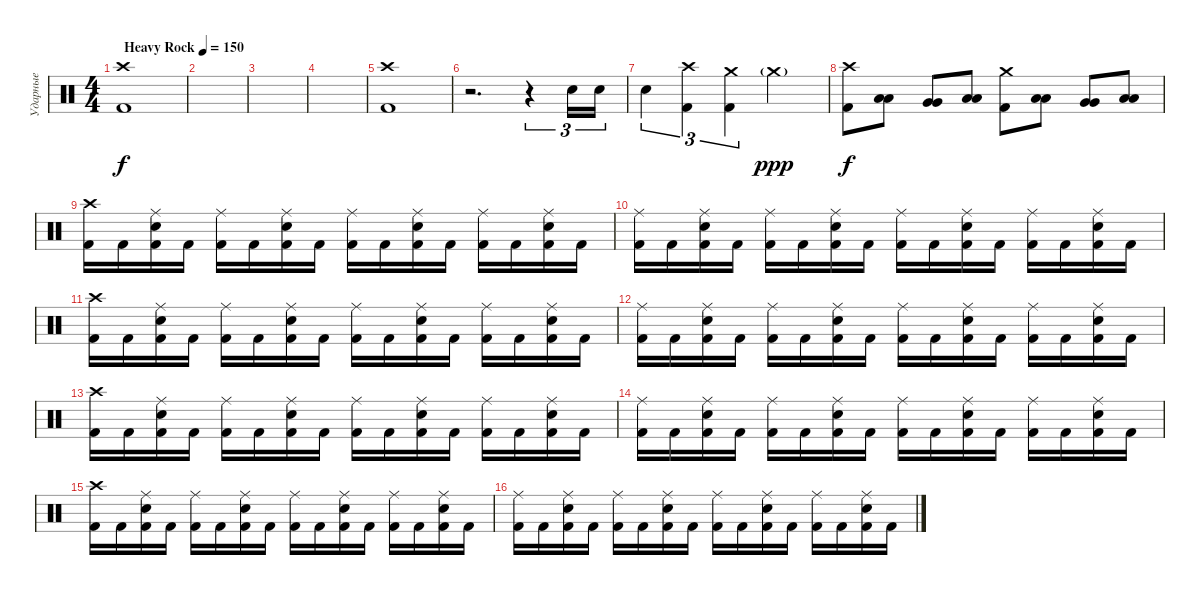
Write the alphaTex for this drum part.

\track ("Ударные" "Ударные") {instrument percussion}
\staff {score}
\articulation defaults
\ts (4 4)
\tempo (150 "Heavy Rock")
\clef neutral
\ks c
("Crash high (hit)" "Kick (hit) 2").1{dy f} |
|
|
|
("Crash high (hit)" "Kick (hit) 2").1 |
r.2{d} r.4{tu (3 2)} "Electric Snare (hit)".16{tu (3 2)} "Electric Snare (hit)".16{tu (3 2)} |
"Electric Snare (hit)".4{tu (3 2)} ("Crash high (hit)" "Kick (hit) 2").4{tu (3 2)} ("Crash medium (hit)" "Kick (hit) 2").4{tu (3 2)} "Crash medium (hit)"{g}.2{dy ppp} |
("Crash high (hit)" "Kick (hit) 2").8{dy f} ("Low Tom (hit)" "Low Tom (hit)").8 ("Very Low Tom (hit)" "Very Low Tom (hit)").8 ("Low Floor Tom (hit)" "Low Floor Tom (hit)").8 ("Crash medium (hit)" "Kick (hit) 2").8 ("Low Tom (hit)" "Low Tom (hit)").8 ("Very Low Tom (hit)" "Very Low Tom (hit)").8 ("Low Floor Tom (hit)" "Low Floor Tom (hit)").8 |
("Crash high (hit)" "Kick (hit) 2").16 "Kick (hit) 2".16 ("Ride (middle)" "Electric Snare (hit)" "Kick (hit) 2").16 "Kick (hit) 2".16 ("Ride (middle)" "Kick (hit) 2").16 "Kick (hit) 2".16 ("Ride (middle)" "Electric Snare (hit)" "Kick (hit) 2").16 "Kick (hit) 2".16 ("Ride (middle)" "Kick (hit) 2").16 "Kick (hit) 2".16 ("Ride (middle)" "Electric Snare (hit)" "Kick (hit) 2").16 "Kick (hit) 2".16 ("Ride (middle)" "Kick (hit) 2").16 "Kick (hit) 2".16 ("Ride (middle)" "Electric Snare (hit)" "Kick (hit) 2").16 "Kick (hit) 2".16 |
("Ride (middle)" "Kick (hit) 2").16 "Kick (hit) 2".16 ("Ride (middle)" "Electric Snare (hit)" "Kick (hit) 2").16 "Kick (hit) 2".16 ("Ride (middle)" "Kick (hit) 2").16 "Kick (hit) 2".16 ("Ride (middle)" "Electric Snare (hit)" "Kick (hit) 2").16 "Kick (hit) 2".16 ("Ride (middle)" "Kick (hit) 2").16 "Kick (hit) 2".16 ("Ride (middle)" "Electric Snare (hit)" "Kick (hit) 2").16 "Kick (hit) 2".16 ("Ride (middle)" "Kick (hit) 2").16 "Kick (hit) 2".16 ("Ride (middle)" "Electric Snare (hit)" "Kick (hit) 2").16 "Kick (hit) 2".16 |
("Crash high (hit)" "Kick (hit) 2").16 "Kick (hit) 2".16 ("Ride (middle)" "Electric Snare (hit)" "Kick (hit) 2").16 "Kick (hit) 2".16 ("Ride (middle)" "Kick (hit) 2").16 "Kick (hit) 2".16 ("Ride (middle)" "Electric Snare (hit)" "Kick (hit) 2").16 "Kick (hit) 2".16 ("Ride (middle)" "Kick (hit) 2").16 "Kick (hit) 2".16 ("Ride (middle)" "Electric Snare (hit)" "Kick (hit) 2").16 "Kick (hit) 2".16 ("Ride (middle)" "Kick (hit) 2").16 "Kick (hit) 2".16 ("Ride (middle)" "Electric Snare (hit)" "Kick (hit) 2").16 "Kick (hit) 2".16 |
("Ride (middle)" "Kick (hit) 2").16 "Kick (hit) 2".16 ("Ride (middle)" "Electric Snare (hit)" "Kick (hit) 2").16 "Kick (hit) 2".16 ("Ride (middle)" "Kick (hit) 2").16 "Kick (hit) 2".16 ("Ride (middle)" "Electric Snare (hit)" "Kick (hit) 2").16 "Kick (hit) 2".16 ("Ride (middle)" "Kick (hit) 2").16 "Kick (hit) 2".16 ("Ride (middle)" "Electric Snare (hit)" "Kick (hit) 2").16 "Kick (hit) 2".16 ("Ride (middle)" "Kick (hit) 2").16 "Kick (hit) 2".16 ("Ride (middle)" "Electric Snare (hit)" "Kick (hit) 2").16 "Kick (hit) 2".16 |
("Crash high (hit)" "Kick (hit) 2").16 "Kick (hit) 2".16 ("Ride (middle)" "Electric Snare (hit)" "Kick (hit) 2").16 "Kick (hit) 2".16 ("Ride (middle)" "Kick (hit) 2").16 "Kick (hit) 2".16 ("Ride (middle)" "Electric Snare (hit)" "Kick (hit) 2").16 "Kick (hit) 2".16 ("Ride (middle)" "Kick (hit) 2").16 "Kick (hit) 2".16 ("Ride (middle)" "Electric Snare (hit)" "Kick (hit) 2").16 "Kick (hit) 2".16 ("Ride (middle)" "Kick (hit) 2").16 "Kick (hit) 2".16 ("Ride (middle)" "Electric Snare (hit)" "Kick (hit) 2").16 "Kick (hit) 2".16 |
("Ride (middle)" "Kick (hit) 2").16 "Kick (hit) 2".16 ("Ride (middle)" "Electric Snare (hit)" "Kick (hit) 2").16 "Kick (hit) 2".16 ("Ride (middle)" "Kick (hit) 2").16 "Kick (hit) 2".16 ("Ride (middle)" "Electric Snare (hit)" "Kick (hit) 2").16 "Kick (hit) 2".16 ("Ride (middle)" "Kick (hit) 2").16 "Kick (hit) 2".16 ("Ride (middle)" "Electric Snare (hit)" "Kick (hit) 2").16 "Kick (hit) 2".16 ("Ride (middle)" "Kick (hit) 2").16 "Kick (hit) 2".16 ("Ride (middle)" "Electric Snare (hit)" "Kick (hit) 2").16 "Kick (hit) 2".16 |
("Crash high (hit)" "Kick (hit) 2").16 "Kick (hit) 2".16 ("Ride (middle)" "Electric Snare (hit)" "Kick (hit) 2").16 "Kick (hit) 2".16 ("Ride (middle)" "Kick (hit) 2").16 "Kick (hit) 2".16 ("Ride (middle)" "Electric Snare (hit)" "Kick (hit) 2").16 "Kick (hit) 2".16 ("Ride (middle)" "Kick (hit) 2").16 "Kick (hit) 2".16 ("Ride (middle)" "Electric Snare (hit)" "Kick (hit) 2").16 "Kick (hit) 2".16 ("Ride (middle)" "Kick (hit) 2").16 "Kick (hit) 2".16 ("Ride (middle)" "Electric Snare (hit)" "Kick (hit) 2").16 "Kick (hit) 2".16 |
("Ride (middle)" "Kick (hit) 2").16 "Kick (hit) 2".16 ("Ride (middle)" "Electric Snare (hit)" "Kick (hit) 2").16 "Kick (hit) 2".16 ("Ride (middle)" "Kick (hit) 2").16 "Kick (hit) 2".16 ("Ride (middle)" "Electric Snare (hit)" "Kick (hit) 2").16 "Kick (hit) 2".16 ("Ride (middle)" "Kick (hit) 2").16 "Kick (hit) 2".16 ("Ride (middle)" "Electric Snare (hit)" "Kick (hit) 2").16 "Kick (hit) 2".16 ("Ride (middle)" "Kick (hit) 2").16 "Kick (hit) 2".16 ("Ride (middle)" "Electric Snare (hit)" "Kick (hit) 2").16 "Kick (hit) 2".16
